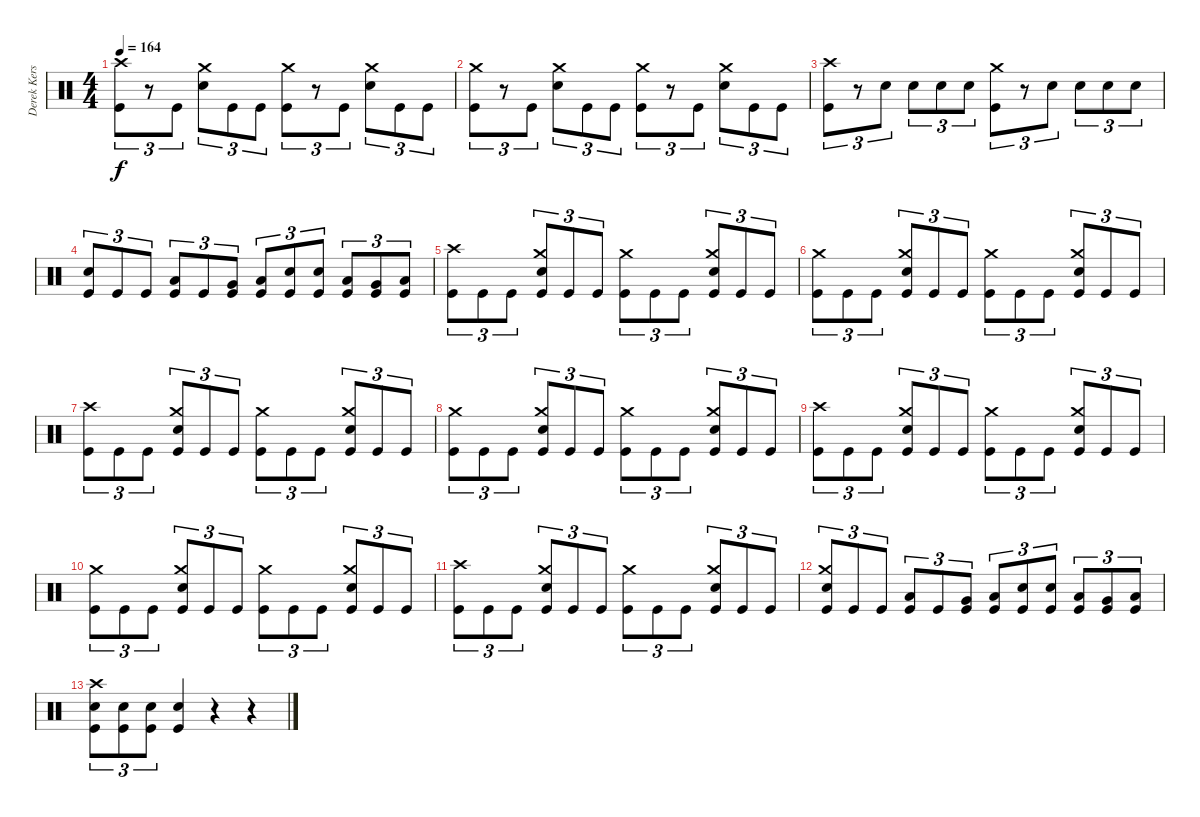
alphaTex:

\track ("Derek Kerswill" "Derek Kers") {instrument percussion}
\staff {score}
\articulation defaults
\ts (4 4)
\tempo 164
\clef neutral
\ks c
("Crash high (hit)" "Kick (hit)").8{tu (3 2) dy f} r.8{tu (3 2)} "Kick (hit)".8{tu (3 2)} ("Crash medium (hit)" "Snare (hit) 2").8{tu (3 2)} "Kick (hit)".8{tu (3 2)} "Kick (hit)".8{tu (3 2)} ("Crash medium (hit)" "Kick (hit)").8{tu (3 2)} r.8{tu (3 2)} "Kick (hit)".8{tu (3 2)} ("Crash medium (hit)" "Snare (hit) 2").8{tu (3 2)} "Kick (hit)".8{tu (3 2)} "Kick (hit)".8{tu (3 2)} |
("Crash medium (hit)" "Kick (hit)").8{tu (3 2)} r.8{tu (3 2)} "Kick (hit)".8{tu (3 2)} ("Crash medium (hit)" "Snare (hit) 2").8{tu (3 2)} "Kick (hit)".8{tu (3 2)} "Kick (hit)".8{tu (3 2)} ("Crash medium (hit)" "Kick (hit)").8{tu (3 2)} r.8{tu (3 2)} "Kick (hit)".8{tu (3 2)} ("Crash medium (hit)" "Snare (hit) 2").8{tu (3 2)} "Kick (hit)".8{tu (3 2)} "Kick (hit)".8{tu (3 2)} |
("Crash high (hit)" "Kick (hit)").8{tu (3 2)} r.8{tu (3 2)} "Snare (hit) 2".8{tu (3 2)} "Snare (hit) 2".8{tu (3 2)} "Snare (hit) 2".8{tu (3 2)} "Snare (hit) 2".8{tu (3 2)} ("Crash medium (hit)" "Kick (hit)").8{tu (3 2)} r.8{tu (3 2)} "Snare (hit) 2".8{tu (3 2)} "Snare (hit) 2".8{tu (3 2)} "Snare (hit) 2".8{tu (3 2)} "Snare (hit) 2".8{tu (3 2)} |
("Snare (hit) 2" "Kick (hit)").8{tu (3 2)} "Kick (hit)".8{tu (3 2)} "Kick (hit)".8{tu (3 2)} ("Low Tom (hit)" "Kick (hit)").8{tu (3 2)} "Kick (hit)".8{tu (3 2)} ("Very Low Tom (hit)" "Kick (hit)").8{tu (3 2)} ("Low Floor Tom (hit)" "Kick (hit)").8{tu (3 2)} ("Snare (hit) 2" "Kick (hit)").8{tu (3 2)} ("Snare (hit) 2" "Kick (hit)").8{tu (3 2)} ("Low Tom (hit)" "Kick (hit)").8{tu (3 2)} ("Very Low Tom (hit)" "Kick (hit)").8{tu (3 2)} ("Low Floor Tom (hit)" "Kick (hit)").8{tu (3 2)} |
("Crash high (hit)" "Kick (hit)").8{tu (3 2)} "Kick (hit)".8{tu (3 2)} "Kick (hit)".8{tu (3 2)} ("Crash medium (hit)" "Snare (hit) 2" "Kick (hit)").8{tu (3 2)} "Kick (hit)".8{tu (3 2)} "Kick (hit)".8{tu (3 2)} ("Crash medium (hit)" "Kick (hit)").8{tu (3 2)} "Kick (hit)".8{tu (3 2)} "Kick (hit)".8{tu (3 2)} ("Crash medium (hit)" "Snare (hit) 2" "Kick (hit)").8{tu (3 2)} "Kick (hit)".8{tu (3 2)} "Kick (hit)".8{tu (3 2)} |
("Crash medium (hit)" "Kick (hit)").8{tu (3 2)} "Kick (hit)".8{tu (3 2)} "Kick (hit)".8{tu (3 2)} ("Crash medium (hit)" "Snare (hit) 2" "Kick (hit)").8{tu (3 2)} "Kick (hit)".8{tu (3 2)} "Kick (hit)".8{tu (3 2)} ("Crash medium (hit)" "Kick (hit)").8{tu (3 2)} "Kick (hit)".8{tu (3 2)} "Kick (hit)".8{tu (3 2)} ("Crash medium (hit)" "Snare (hit) 2" "Kick (hit)").8{tu (3 2)} "Kick (hit)".8{tu (3 2)} "Kick (hit)".8{tu (3 2)} |
("Crash high (hit)" "Kick (hit)").8{tu (3 2)} "Kick (hit)".8{tu (3 2)} "Kick (hit)".8{tu (3 2)} ("Crash medium (hit)" "Snare (hit) 2" "Kick (hit)").8{tu (3 2)} "Kick (hit)".8{tu (3 2)} "Kick (hit)".8{tu (3 2)} ("Crash medium (hit)" "Kick (hit)").8{tu (3 2)} "Kick (hit)".8{tu (3 2)} "Kick (hit)".8{tu (3 2)} ("Crash medium (hit)" "Snare (hit) 2" "Kick (hit)").8{tu (3 2)} "Kick (hit)".8{tu (3 2)} "Kick (hit)".8{tu (3 2)} |
("Crash medium (hit)" "Kick (hit)").8{tu (3 2)} "Kick (hit)".8{tu (3 2)} "Kick (hit)".8{tu (3 2)} ("Crash medium (hit)" "Snare (hit) 2" "Kick (hit)").8{tu (3 2)} "Kick (hit)".8{tu (3 2)} "Kick (hit)".8{tu (3 2)} ("Crash medium (hit)" "Kick (hit)").8{tu (3 2)} "Kick (hit)".8{tu (3 2)} "Kick (hit)".8{tu (3 2)} ("Crash medium (hit)" "Snare (hit) 2" "Kick (hit)").8{tu (3 2)} "Kick (hit)".8{tu (3 2)} "Kick (hit)".8{tu (3 2)} |
("Crash high (hit)" "Kick (hit)").8{tu (3 2)} "Kick (hit)".8{tu (3 2)} "Kick (hit)".8{tu (3 2)} ("Crash medium (hit)" "Snare (hit) 2" "Kick (hit)").8{tu (3 2)} "Kick (hit)".8{tu (3 2)} "Kick (hit)".8{tu (3 2)} ("Crash medium (hit)" "Kick (hit)").8{tu (3 2)} "Kick (hit)".8{tu (3 2)} "Kick (hit)".8{tu (3 2)} ("Crash medium (hit)" "Snare (hit) 2" "Kick (hit)").8{tu (3 2)} "Kick (hit)".8{tu (3 2)} "Kick (hit)".8{tu (3 2)} |
("Crash medium (hit)" "Kick (hit)").8{tu (3 2)} "Kick (hit)".8{tu (3 2)} "Kick (hit)".8{tu (3 2)} ("Crash medium (hit)" "Snare (hit) 2" "Kick (hit)").8{tu (3 2)} "Kick (hit)".8{tu (3 2)} "Kick (hit)".8{tu (3 2)} ("Crash medium (hit)" "Kick (hit)").8{tu (3 2)} "Kick (hit)".8{tu (3 2)} "Kick (hit)".8{tu (3 2)} ("Crash medium (hit)" "Snare (hit) 2" "Kick (hit)").8{tu (3 2)} "Kick (hit)".8{tu (3 2)} "Kick (hit)".8{tu (3 2)} |
("Crash high (hit)" "Kick (hit)").8{tu (3 2)} "Kick (hit)".8{tu (3 2)} "Kick (hit)".8{tu (3 2)} ("Crash medium (hit)" "Snare (hit) 2" "Kick (hit)").8{tu (3 2)} "Kick (hit)".8{tu (3 2)} "Kick (hit)".8{tu (3 2)} ("Crash medium (hit)" "Kick (hit)").8{tu (3 2)} "Kick (hit)".8{tu (3 2)} "Kick (hit)".8{tu (3 2)} ("Crash medium (hit)" "Snare (hit) 2" "Kick (hit)").8{tu (3 2)} "Kick (hit)".8{tu (3 2)} "Kick (hit)".8{tu (3 2)} |
("Crash medium (hit)" "Snare (hit) 2" "Kick (hit)").8{tu (3 2)} "Kick (hit)".8{tu (3 2)} "Kick (hit)".8{tu (3 2)} ("Low Tom (hit)" "Kick (hit)").8{tu (3 2)} "Kick (hit)".8{tu (3 2)} ("Very Low Tom (hit)" "Kick (hit)").8{tu (3 2)} ("Low Floor Tom (hit)" "Kick (hit)").8{tu (3 2)} ("Snare (hit) 2" "Kick (hit)").8{tu (3 2)} ("Snare (hit) 2" "Kick (hit)").8{tu (3 2)} ("Low Tom (hit)" "Kick (hit)").8{tu (3 2)} ("Very Low Tom (hit)" "Kick (hit)").8{tu (3 2)} ("Low Floor Tom (hit)" "Kick (hit)").8{tu (3 2)} |
("Crash high (hit)" "Kick (hit)" "Snare (hit) 2").8{tu (3 2)} ("Kick (hit)" "Snare (hit) 2").8{tu (3 2)} ("Kick (hit)" "Snare (hit) 2").8{tu (3 2)} ("Kick (hit)" "Snare (hit) 2").4 r.4 r.4
